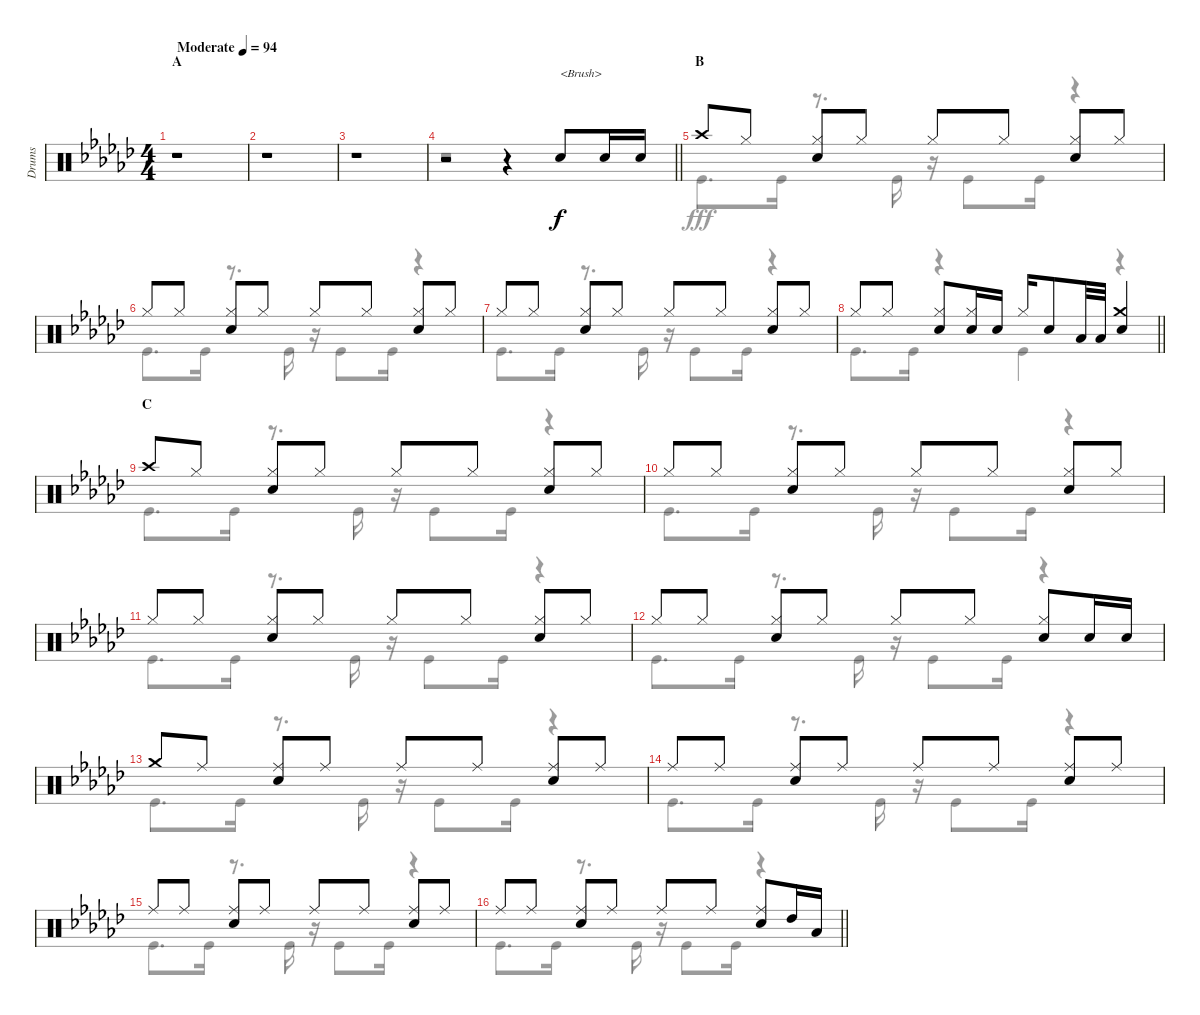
\track ("Drums" "Drums") {instrument percussion}
\staff {score}
\articulation defaults
\voice
\ts (4 4)
\section ("" "A")
\tempo (94 "Moderate")
\clef neutral
\ks gb
r.1{dy f} |
r.1 |
r.1 |
\barLineRight lightlight
r.2 r.4 "Electric Snare (hit)".8{txt "<Brush>"} "Electric Snare (hit)".16 "Electric Snare (hit)".16 |
\section ("" "B")
"Crash high (hit)".8 "Hi-Hat (closed)".8 ("Hi-Hat (closed)" "Electric Snare (hit)").8 "Hi-Hat (closed)".8 "Hi-Hat (closed)".8 "Hi-Hat (closed)".8 ("Hi-Hat (closed)" "Electric Snare (hit)").8 "Hi-Hat (closed)".8 |
"Hi-Hat (closed)".8 "Hi-Hat (closed)".8 ("Hi-Hat (closed)" "Electric Snare (hit)").8 "Hi-Hat (closed)".8 "Hi-Hat (closed)".8 "Hi-Hat (closed)".8 ("Hi-Hat (closed)" "Electric Snare (hit)").8 "Hi-Hat (closed)".8 |
"Hi-Hat (closed)".8 "Hi-Hat (closed)".8 ("Hi-Hat (closed)" "Electric Snare (hit)").8 "Hi-Hat (closed)".8 "Hi-Hat (closed)".8 "Hi-Hat (closed)".8 ("Hi-Hat (closed)" "Electric Snare (hit)").8 "Hi-Hat (closed)".8 |
\barLineRight lightlight "Hi-Hat (closed)".8 "Hi-Hat (closed)".8
("Hi-Hat (closed)" "Electric Snare (hit)").8 ("Hi-Hat (closed)" "Electric Snare (hit)").16 "Electric Snare (hit)".16 "Hi-Hat (closed)".16 "Electric Snare (hit)".8 "Low Tom (hit)".32 "Low Tom (hit)".32 ("Crash medium (hit)" "Electric Snare (hit)").4 |
\section ("" "C")
"Crash high (hit)".8 "Hi-Hat (closed)".8 ("Hi-Hat (closed)" "Electric Snare (hit)").8 "Hi-Hat (closed)".8 "Hi-Hat (closed)".8 "Hi-Hat (closed)".8 ("Hi-Hat (closed)" "Electric Snare (hit)").8 "Hi-Hat (closed)".8 |
"Hi-Hat (closed)".8 "Hi-Hat (closed)".8 ("Hi-Hat (closed)" "Electric Snare (hit)").8 "Hi-Hat (closed)".8 "Hi-Hat (closed)".8 "Hi-Hat (closed)".8 ("Hi-Hat (closed)" "Electric Snare (hit)").8 "Hi-Hat (closed)".8 |
"Hi-Hat (closed)".8 "Hi-Hat (closed)".8 ("Hi-Hat (closed)" "Electric Snare (hit)").8 "Hi-Hat (closed)".8 "Hi-Hat (closed)".8 "Hi-Hat (closed)".8 ("Hi-Hat (closed)" "Electric Snare (hit)").8 "Hi-Hat (closed)".8 |
"Hi-Hat (closed)".8 "Hi-Hat (closed)".8 ("Hi-Hat (closed)" "Electric Snare (hit)").8 "Hi-Hat (closed)".8 "Hi-Hat (closed)".8 "Hi-Hat (closed)".8 ("Hi-Hat (closed)" "Electric Snare (hit)").8 "Electric Snare (hit)".16 "Electric Snare (hit)".16 |
"Crash medium (hit)".8 "Ride (middle)".8 ("Ride (middle)" "Electric Snare (hit)").8 "Ride (middle)".8 "Ride (middle)".8 "Ride (middle)".8 ("Ride (middle)" "Electric Snare (hit)").8 "Ride (middle)".8 |
"Ride (middle)".8 "Ride (middle)".8 ("Ride (middle)" "Electric Snare (hit)").8 "Ride (middle)".8 "Ride (middle)".8 "Ride (middle)".8 ("Ride (middle)" "Electric Snare (hit)").8 "Ride (middle)".8 |
"Ride (middle)".8 "Ride (middle)".8 ("Ride (middle)" "Electric Snare (hit)").8 "Ride (middle)".8 "Ride (middle)".8 "Ride (middle)".8 ("Ride (middle)" "Electric Snare (hit)").8 "Ride (middle)".8 |
\barLineRight lightlight "Ride (middle)".8 "Ride (middle)".8
("Ride (middle)" "Electric Snare (hit)").8 "Ride (middle)".8 "Ride (middle)".8 "Ride (middle)".8 ("Ride (middle)" "Electric Snare (hit)").8 "High Tom (hit)".16 "Low Tom (hit)".16
\voice
\clef neutral
\ottava regular
\simile none
\ks gb
r.1{dy fff} |
r.1 |
r.1 |
\barLineRight lightlight
r.1 |
"Kick (hit)".8{d} "Kick (hit)".16 r.8{d} "Kick (hit)".16 r.16 "Kick (hit)".8 "Kick (hit)".16 r.4 |
"Kick (hit)".8{d} "Kick (hit)".16 r.8{d} "Kick (hit)".16 r.16 "Kick (hit)".8 "Kick (hit)".16 r.4 |
"Kick (hit)".8{d} "Kick (hit)".16 r.8{d} "Kick (hit)".16 r.16 "Kick (hit)".8 "Kick (hit)".16 r.4 |
\barLineRight lightlight "Kick (hit)".8{d} "Kick (hit)".16
r.4 "Kick (hit)".4 r.4 |
"Kick (hit)".8{d} "Kick (hit)".16 r.8{d} "Kick (hit)".16 r.16 "Kick (hit)".8 "Kick (hit)".16 r.4 |
"Kick (hit)".8{d} "Kick (hit)".16 r.8{d} "Kick (hit)".16 r.16 "Kick (hit)".8 "Kick (hit)".16 r.4 |
"Kick (hit)".8{d} "Kick (hit)".16 r.8{d} "Kick (hit)".16 r.16 "Kick (hit)".8 "Kick (hit)".16 r.4 |
"Kick (hit)".8{d} "Kick (hit)".16 r.8{d} "Kick (hit)".16 r.16 "Kick (hit)".8 "Kick (hit)".16 r.4 |
"Kick (hit)".8{d} "Kick (hit)".16 r.8{d} "Kick (hit)".16 r.16 "Kick (hit)".8 "Kick (hit)".16 r.4 |
"Kick (hit)".8{d} "Kick (hit)".16 r.8{d} "Kick (hit)".16 r.16 "Kick (hit)".8 "Kick (hit)".16 r.4 |
"Kick (hit)".8{d} "Kick (hit)".16 r.8{d} "Kick (hit)".16 r.16 "Kick (hit)".8 "Kick (hit)".16 r.4 |
\barLineRight lightlight "Kick (hit)".8{d} "Kick (hit)".16
r.8{d} "Kick (hit)".16 r.16 "Kick (hit)".8 "Kick (hit)".16 r.4
